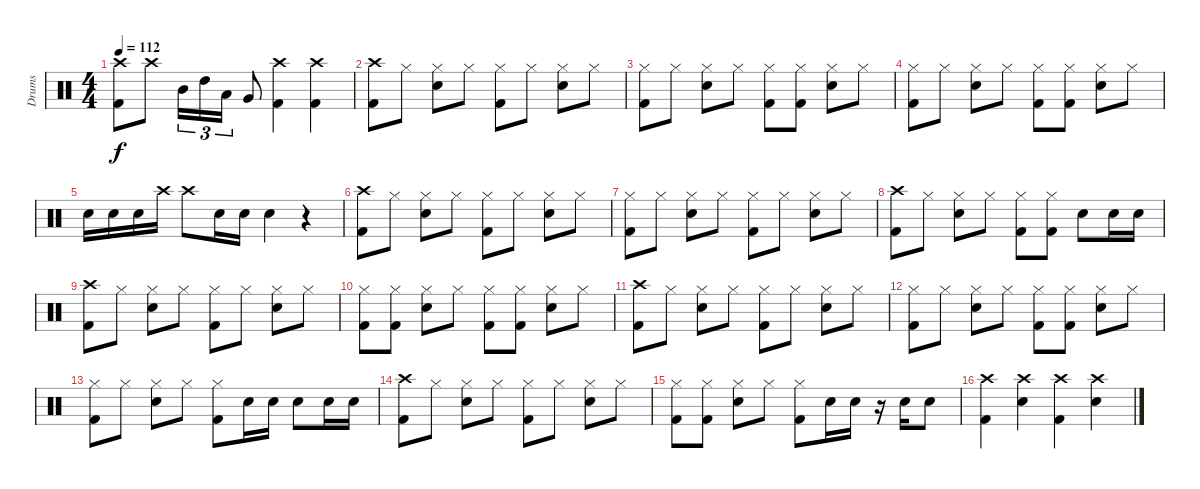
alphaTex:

\track ("Drums" "Drums") {instrument percussion}
\staff {score}
\articulation defaults
\ts (4 4)
\tempo 112
\clef neutral
\ks c
("Crash high (hit)" "Kick (hit) 2").8{dy f} "Crash high (hit)".8 "Mid Tom (hit)".16{tu (3 2)} "High Tom (hit)".16{tu (3 2)} "Low Tom (hit)".16{tu (3 2)} "Very Low Tom (hit)".8 ("Crash high (hit)" "Kick (hit) 2").4 ("Crash high (hit)" "Kick (hit) 2").4 |
("Crash high (hit)" "Kick (hit) 2").8 "Hi-Hat (closed)".8 ("Hi-Hat (closed)" "Electric Snare (hit)").8 "Hi-Hat (closed)".8 ("Hi-Hat (closed)" "Kick (hit) 2").8 "Hi-Hat (closed)".8 ("Hi-Hat (closed)" "Electric Snare (hit)").8 "Hi-Hat (closed)".8 |
("Hi-Hat (closed)" "Kick (hit) 2").8 "Hi-Hat (closed)".8 ("Hi-Hat (closed)" "Electric Snare (hit)").8 "Hi-Hat (closed)".8 ("Hi-Hat (closed)" "Kick (hit) 2").8 ("Hi-Hat (closed)" "Kick (hit) 2").8 ("Hi-Hat (closed)" "Electric Snare (hit)").8 "Hi-Hat (closed)".8 |
("Hi-Hat (closed)" "Kick (hit) 2").8 "Hi-Hat (closed)".8 ("Hi-Hat (closed)" "Electric Snare (hit)").8 "Hi-Hat (closed)".8 ("Hi-Hat (closed)" "Kick (hit) 2").8 ("Hi-Hat (closed)" "Kick (hit) 2").8 ("Hi-Hat (closed)" "Electric Snare (hit)").8 "Hi-Hat (closed)".8 |
"Electric Snare (hit)".16 "Electric Snare (hit)".16 "Electric Snare (hit)".16 "Crash high (hit)".16 "Crash high (hit)".8 "Electric Snare (hit)".16 "Electric Snare (hit)".16 "Electric Snare (hit)".4 r.4 |
("Crash high (hit)" "Kick (hit) 2").8 "Hi-Hat (closed)".8 ("Hi-Hat (closed)" "Electric Snare (hit)").8 "Hi-Hat (closed)".8 ("Hi-Hat (closed)" "Kick (hit) 2").8 "Hi-Hat (closed)".8 ("Hi-Hat (closed)" "Electric Snare (hit)").8 "Hi-Hat (closed)".8 |
("Hi-Hat (closed)" "Kick (hit) 2").8 "Hi-Hat (closed)".8 ("Hi-Hat (closed)" "Electric Snare (hit)").8 "Hi-Hat (closed)".8 ("Hi-Hat (closed)" "Kick (hit) 2").8 "Hi-Hat (closed)".8 ("Hi-Hat (closed)" "Electric Snare (hit)").8 "Hi-Hat (closed)".8 |
("Crash high (hit)" "Kick (hit) 2").8 "Hi-Hat (closed)".8 ("Hi-Hat (closed)" "Electric Snare (hit)").8 "Hi-Hat (closed)".8 ("Hi-Hat (closed)" "Kick (hit) 2").8 ("Hi-Hat (closed)" "Kick (hit) 2").8 "Electric Snare (hit)".8 "Electric Snare (hit)".16 "Electric Snare (hit)".16 |
("Crash high (hit)" "Kick (hit) 2").8 "Hi-Hat (closed)".8 ("Hi-Hat (closed)" "Electric Snare (hit)").8 "Hi-Hat (closed)".8 ("Hi-Hat (closed)" "Kick (hit) 2").8 "Hi-Hat (closed)".8 ("Hi-Hat (closed)" "Electric Snare (hit)").8 "Hi-Hat (closed)".8 |
("Hi-Hat (closed)" "Kick (hit) 2").8 ("Hi-Hat (closed)" "Kick (hit) 2").8 ("Hi-Hat (closed)" "Electric Snare (hit)").8 "Hi-Hat (closed)".8 ("Hi-Hat (closed)" "Kick (hit) 2").8 ("Hi-Hat (closed)" "Kick (hit) 2").8 ("Hi-Hat (closed)" "Electric Snare (hit)").8 "Hi-Hat (closed)".8 |
("Crash high (hit)" "Kick (hit) 2").8 "Hi-Hat (closed)".8 ("Hi-Hat (closed)" "Electric Snare (hit)").8 "Hi-Hat (closed)".8 ("Hi-Hat (closed)" "Kick (hit) 2").8 "Hi-Hat (closed)".8 ("Hi-Hat (closed)" "Electric Snare (hit)").8 "Hi-Hat (closed)".8 |
("Hi-Hat (closed)" "Kick (hit) 2").8 "Hi-Hat (closed)".8 ("Hi-Hat (closed)" "Electric Snare (hit)").8 "Hi-Hat (closed)".8 ("Hi-Hat (closed)" "Kick (hit) 2").8 ("Hi-Hat (closed)" "Kick (hit) 2").8 ("Hi-Hat (closed)" "Electric Snare (hit)").8 "Hi-Hat (closed)".8 |
("Hi-Hat (closed)" "Kick (hit) 2").8 "Hi-Hat (closed)".8 ("Hi-Hat (closed)" "Electric Snare (hit)").8 "Hi-Hat (closed)".8 ("Hi-Hat (closed)" "Kick (hit) 2").8 "Electric Snare (hit)".16 "Electric Snare (hit)".16 "Electric Snare (hit)".8 "Electric Snare (hit)".16 "Electric Snare (hit)".16 |
("Crash high (hit)" "Kick (hit) 2").8 "Hi-Hat (closed)".8 ("Hi-Hat (closed)" "Electric Snare (hit)").8 "Hi-Hat (closed)".8 ("Hi-Hat (closed)" "Kick (hit) 2").8 "Hi-Hat (closed)".8 ("Hi-Hat (closed)" "Electric Snare (hit)").8 "Hi-Hat (closed)".8 |
("Hi-Hat (closed)" "Kick (hit) 2").8 ("Hi-Hat (closed)" "Kick (hit) 2").8 ("Hi-Hat (closed)" "Electric Snare (hit)").8 "Hi-Hat (closed)".8 ("Hi-Hat (closed)" "Kick (hit) 2").8 "Electric Snare (hit)".16 "Electric Snare (hit)".16 r.16 "Electric Snare (hit)".16 "Electric Snare (hit)".8 |
("Crash high (hit)" "Kick (hit) 2").4 ("Crash high (hit)" "Electric Snare (hit)").4 ("Crash high (hit)" "Kick (hit) 2").4 ("Crash high (hit)" "Electric Snare (hit)").4
